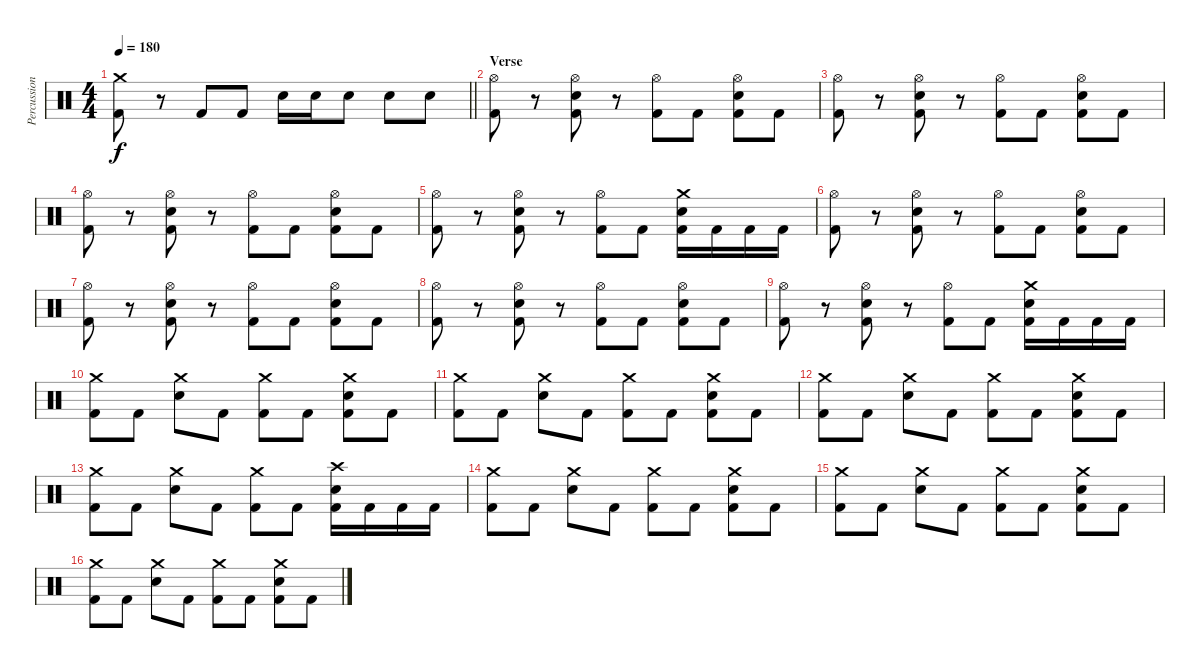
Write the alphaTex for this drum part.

\track ("Percussion" "Percussion") {instrument percussion}
\staff {score}
\articulation defaults
\ts (4 4)
\tempo 180
\clef neutral
\barLineRight lightlight
\ks c
("Crash medium (hit)" "Kick (hit) 2").8{dy f} r.8 "Kick (hit) 2".8 "Kick (hit) 2".8 "Electric Snare (hit)".16 "Electric Snare (hit)".16 "Electric Snare (hit)".8 "Electric Snare (hit)".8 "Electric Snare (hit)".8 |
\section ("" "Verse")
("Hi-Hat (open)" "Kick (hit) 2").8 r.8 ("Hi-Hat (open)" "Electric Snare (hit)" "Kick (hit) 2").8 r.8 ("Hi-Hat (open)" "Kick (hit) 2").8 "Kick (hit) 2".8 ("Hi-Hat (open)" "Electric Snare (hit)" "Kick (hit) 2").8 "Kick (hit) 2".8 |
("Hi-Hat (open)" "Kick (hit) 2").8 r.8 ("Hi-Hat (open)" "Electric Snare (hit)" "Kick (hit) 2").8 r.8 ("Hi-Hat (open)" "Kick (hit) 2").8 "Kick (hit) 2".8 ("Hi-Hat (open)" "Electric Snare (hit)" "Kick (hit) 2").8 "Kick (hit) 2".8 |
("Hi-Hat (open)" "Kick (hit) 2").8 r.8 ("Hi-Hat (open)" "Electric Snare (hit)" "Kick (hit) 2").8 r.8 ("Hi-Hat (open)" "Kick (hit) 2").8 "Kick (hit) 2".8 ("Hi-Hat (open)" "Electric Snare (hit)" "Kick (hit) 2").8 "Kick (hit) 2".8 |
("Hi-Hat (open)" "Kick (hit) 2").8 r.8 ("Hi-Hat (open)" "Electric Snare (hit)" "Kick (hit) 2").8 r.8 ("Hi-Hat (open)" "Kick (hit) 2").8 "Kick (hit) 2".8 ("Crash medium (hit)" "Electric Snare (hit)" "Kick (hit) 2").16 "Kick (hit) 2".16 "Kick (hit) 2".16 "Kick (hit) 2".16 |
("Hi-Hat (open)" "Kick (hit) 2").8 r.8 ("Hi-Hat (open)" "Electric Snare (hit)" "Kick (hit) 2").8 r.8 ("Hi-Hat (open)" "Kick (hit) 2").8 "Kick (hit) 2".8 ("Hi-Hat (open)" "Electric Snare (hit)" "Kick (hit) 2").8 "Kick (hit) 2".8 |
("Hi-Hat (open)" "Kick (hit) 2").8 r.8 ("Hi-Hat (open)" "Electric Snare (hit)" "Kick (hit) 2").8 r.8 ("Hi-Hat (open)" "Kick (hit) 2").8 "Kick (hit) 2".8 ("Hi-Hat (open)" "Electric Snare (hit)" "Kick (hit) 2").8 "Kick (hit) 2".8 |
("Hi-Hat (open)" "Kick (hit) 2").8 r.8 ("Hi-Hat (open)" "Electric Snare (hit)" "Kick (hit) 2").8 r.8 ("Hi-Hat (open)" "Kick (hit) 2").8 "Kick (hit) 2".8 ("Hi-Hat (open)" "Electric Snare (hit)" "Kick (hit) 2").8 "Kick (hit) 2".8 |
("Hi-Hat (open)" "Kick (hit) 2").8 r.8 ("Hi-Hat (open)" "Electric Snare (hit)" "Kick (hit) 2").8 r.8 ("Hi-Hat (open)" "Kick (hit) 2").8 "Kick (hit) 2".8 ("Crash medium (hit)" "Electric Snare (hit)" "Kick (hit) 2").16 "Kick (hit) 2".16 "Kick (hit) 2".16 "Kick (hit) 2".16 |
("Crash medium (hit)" "Kick (hit) 2").8 "Kick (hit) 2".8 ("Crash medium (hit)" "Electric Snare (hit)").8 "Kick (hit) 2".8 ("Crash medium (hit)" "Kick (hit) 2").8 "Kick (hit) 2".8 ("Crash medium (hit)" "Electric Snare (hit)" "Kick (hit) 2").8 "Kick (hit) 2".8 |
("Crash medium (hit)" "Kick (hit) 2").8 "Kick (hit) 2".8 ("Crash medium (hit)" "Electric Snare (hit)").8 "Kick (hit) 2".8 ("Crash medium (hit)" "Kick (hit) 2").8 "Kick (hit) 2".8 ("Crash medium (hit)" "Electric Snare (hit)" "Kick (hit) 2").8 "Kick (hit) 2".8 |
("Crash medium (hit)" "Kick (hit) 2").8 "Kick (hit) 2".8 ("Crash medium (hit)" "Electric Snare (hit)").8 "Kick (hit) 2".8 ("Crash medium (hit)" "Kick (hit) 2").8 "Kick (hit) 2".8 ("Crash medium (hit)" "Electric Snare (hit)" "Kick (hit) 2").8 "Kick (hit) 2".8 |
("Crash medium (hit)" "Kick (hit) 2").8 "Kick (hit) 2".8 ("Crash medium (hit)" "Electric Snare (hit)").8 "Kick (hit) 2".8 ("Crash medium (hit)" "Kick (hit) 2").8 "Kick (hit) 2".8 ("Crash high (hit)" "Electric Snare (hit)" "Kick (hit) 2").16 "Kick (hit) 2".16 "Kick (hit) 2".16 "Kick (hit) 2".16 |
("Crash medium (hit)" "Kick (hit) 2").8 "Kick (hit) 2".8 ("Crash medium (hit)" "Electric Snare (hit)").8 "Kick (hit) 2".8 ("Crash medium (hit)" "Kick (hit) 2").8 "Kick (hit) 2".8 ("Crash medium (hit)" "Electric Snare (hit)" "Kick (hit) 2").8 "Kick (hit) 2".8 |
("Crash medium (hit)" "Kick (hit) 2").8 "Kick (hit) 2".8 ("Crash medium (hit)" "Electric Snare (hit)").8 "Kick (hit) 2".8 ("Crash medium (hit)" "Kick (hit) 2").8 "Kick (hit) 2".8 ("Crash medium (hit)" "Electric Snare (hit)" "Kick (hit) 2").8 "Kick (hit) 2".8 |
("Crash medium (hit)" "Kick (hit) 2").8 "Kick (hit) 2".8 ("Crash medium (hit)" "Electric Snare (hit)").8 "Kick (hit) 2".8 ("Crash medium (hit)" "Kick (hit) 2").8 "Kick (hit) 2".8 ("Crash medium (hit)" "Electric Snare (hit)" "Kick (hit) 2").8 "Kick (hit) 2".8
